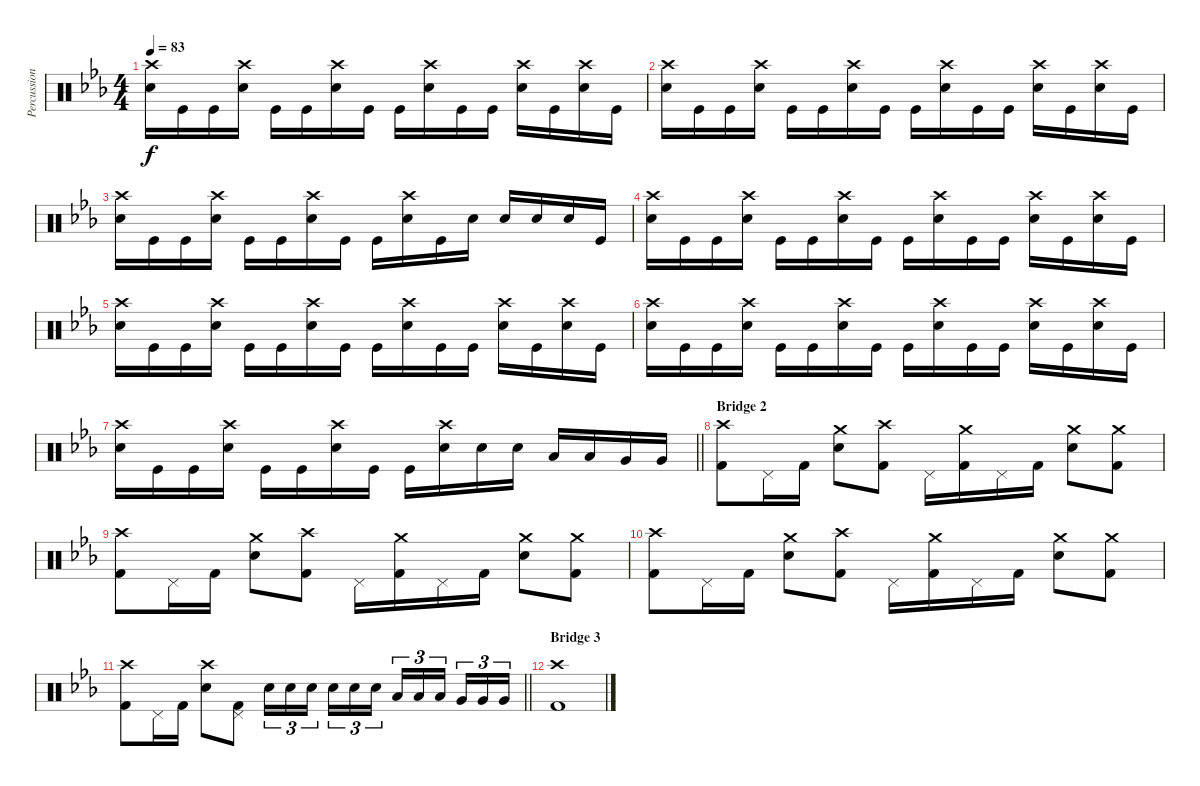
\track ("Percussion" "Percussion") {instrument percussion}
\staff {score}
\articulation defaults
\ts (4 4)
\tempo 83
\clef neutral
\ks cminor
("Crash high (hit)" "Electric Snare (hit)").16{dy f} "Kick (hit)".16 "Kick (hit)".16 ("Crash high (hit)" "Electric Snare (hit)").16 "Kick (hit)".16 "Kick (hit)".16 ("Crash high (hit)" "Electric Snare (hit)").16 "Kick (hit)".16 "Kick (hit)".16 ("Crash high (hit)" "Electric Snare (hit)").16 "Kick (hit)".16 "Kick (hit)".16 ("Crash high (hit)" "Electric Snare (hit)").16 "Kick (hit)".16 ("Crash high (hit)" "Electric Snare (hit)").16 "Kick (hit)".16 |
("Crash high (hit)" "Electric Snare (hit)").16 "Kick (hit)".16 "Kick (hit)".16 ("Crash high (hit)" "Electric Snare (hit)").16 "Kick (hit)".16 "Kick (hit)".16 ("Crash high (hit)" "Electric Snare (hit)").16 "Kick (hit)".16 "Kick (hit)".16 ("Crash high (hit)" "Electric Snare (hit)").16 "Kick (hit)".16 "Kick (hit)".16 ("Crash high (hit)" "Electric Snare (hit)").16 "Kick (hit)".16 ("Crash high (hit)" "Electric Snare (hit)").16 "Kick (hit)".16 |
("Crash high (hit)" "Electric Snare (hit)").16 "Kick (hit)".16 "Kick (hit)".16 ("Crash high (hit)" "Electric Snare (hit)").16 "Kick (hit)".16 "Kick (hit)".16 ("Crash high (hit)" "Electric Snare (hit)").16 "Kick (hit)".16 "Kick (hit)".16 ("Crash high (hit)" "Electric Snare (hit)").16 "Kick (hit)".16 "Electric Snare (hit)".16 "Electric Snare (hit)".16 "Electric Snare (hit)".16 "Electric Snare (hit)".16 "Kick (hit)".16 |
("Crash high (hit)" "Electric Snare (hit)").16 "Kick (hit)".16 "Kick (hit)".16 ("Crash high (hit)" "Electric Snare (hit)").16 "Kick (hit)".16 "Kick (hit)".16 ("Crash high (hit)" "Electric Snare (hit)").16 "Kick (hit)".16 "Kick (hit)".16 ("Crash high (hit)" "Electric Snare (hit)").16 "Kick (hit)".16 "Kick (hit)".16 ("Crash high (hit)" "Electric Snare (hit)").16 "Kick (hit)".16 ("Crash high (hit)" "Electric Snare (hit)").16 "Kick (hit)".16 |
("Crash high (hit)" "Electric Snare (hit)").16 "Kick (hit)".16 "Kick (hit)".16 ("Crash high (hit)" "Electric Snare (hit)").16 "Kick (hit)".16 "Kick (hit)".16 ("Crash high (hit)" "Electric Snare (hit)").16 "Kick (hit)".16 "Kick (hit)".16 ("Crash high (hit)" "Electric Snare (hit)").16 "Kick (hit)".16 "Kick (hit)".16 ("Crash high (hit)" "Electric Snare (hit)").16 "Kick (hit)".16 ("Crash high (hit)" "Electric Snare (hit)").16 "Kick (hit)".16 |
("Crash high (hit)" "Electric Snare (hit)").16 "Kick (hit)".16 "Kick (hit)".16 ("Crash high (hit)" "Electric Snare (hit)").16 "Kick (hit)".16 "Kick (hit)".16 ("Crash high (hit)" "Electric Snare (hit)").16 "Kick (hit)".16 "Kick (hit)".16 ("Crash high (hit)" "Electric Snare (hit)").16 "Kick (hit)".16 "Kick (hit)".16 ("Crash high (hit)" "Electric Snare (hit)").16 "Kick (hit)".16 ("Crash high (hit)" "Electric Snare (hit)").16 "Kick (hit)".16 |
\barLineRight lightlight
("Crash high (hit)" "Electric Snare (hit)").16 "Kick (hit)".16 "Kick (hit)".16 ("Crash high (hit)" "Electric Snare (hit)").16 "Kick (hit)".16 "Kick (hit)".16 ("Crash high (hit)" "Electric Snare (hit)").16 "Kick (hit)".16 "Kick (hit)".16 ("Crash high (hit)" "Electric Snare (hit)").16 "Electric Snare (hit)".16 "Electric Snare (hit)".16 "Low Tom (hit)".16 "Low Tom (hit)".16 "Very Low Tom (hit)".16 "Very Low Tom (hit)".16 |
\section ("" "Bridge 2")
("Crash high (hit)" "Kick (hit) 2").8 "Pedal Hi-Hat (hit)".16 "Kick (hit) 2".16 ("Crash medium (hit)" "Electric Snare (hit)").8 ("Crash high (hit)" "Kick (hit) 2").8 "Pedal Hi-Hat (hit)".16 ("Crash medium (hit)" "Kick (hit) 2").16 "Pedal Hi-Hat (hit)".16 "Kick (hit) 2".16 ("Crash medium (hit)" "Electric Snare (hit)").8 ("Crash medium (hit)" "Kick (hit) 2").8 |
("Crash high (hit)" "Kick (hit) 2").8 "Pedal Hi-Hat (hit)".16 "Kick (hit) 2".16 ("Crash medium (hit)" "Electric Snare (hit)").8 ("Crash high (hit)" "Kick (hit) 2").8 "Pedal Hi-Hat (hit)".16 ("Crash medium (hit)" "Kick (hit) 2").16 "Pedal Hi-Hat (hit)".16 "Kick (hit) 2".16 ("Crash medium (hit)" "Electric Snare (hit)").8 ("Crash medium (hit)" "Kick (hit) 2").8 |
("Crash high (hit)" "Kick (hit) 2").8 "Pedal Hi-Hat (hit)".16 "Kick (hit) 2".16 ("Crash medium (hit)" "Electric Snare (hit)").8 ("Crash high (hit)" "Kick (hit) 2").8 "Pedal Hi-Hat (hit)".16 ("Crash medium (hit)" "Kick (hit) 2").16 "Pedal Hi-Hat (hit)".16 "Kick (hit) 2".16 ("Crash medium (hit)" "Electric Snare (hit)").8 ("Crash medium (hit)" "Kick (hit) 2").8 |
\barLineRight lightlight
("Crash high (hit)" "Kick (hit) 2").8 "Pedal Hi-Hat (hit)".16 "Kick (hit) 2".16 ("Crash high (hit)" "Electric Snare (hit)").8 ("Pedal Hi-Hat (hit)" "Kick (hit) 2").8 "Electric Snare (hit)".16{tu (3 2)} "Electric Snare (hit)".16{tu (3 2)} "Electric Snare (hit)".16{tu (3 2) beam splitsecondary} "Electric Snare (hit)".16{tu (3 2)} "Electric Snare (hit)".16{tu (3 2)} "Electric Snare (hit)".16{tu (3 2)} "Low Tom (hit)".16{tu (3 2)} "Low Tom (hit)".16{tu (3 2)} "Low Tom (hit)".16{tu (3 2) beam splitsecondary} "Very Low Tom (hit)".16{tu (3 2)} "Very Low Tom (hit)".16{tu (3 2)} "Very Low Tom (hit)".16{tu (3 2)} |
\section ("" "Bridge 3")
("Crash high (hit)" "Kick (hit) 2").1
